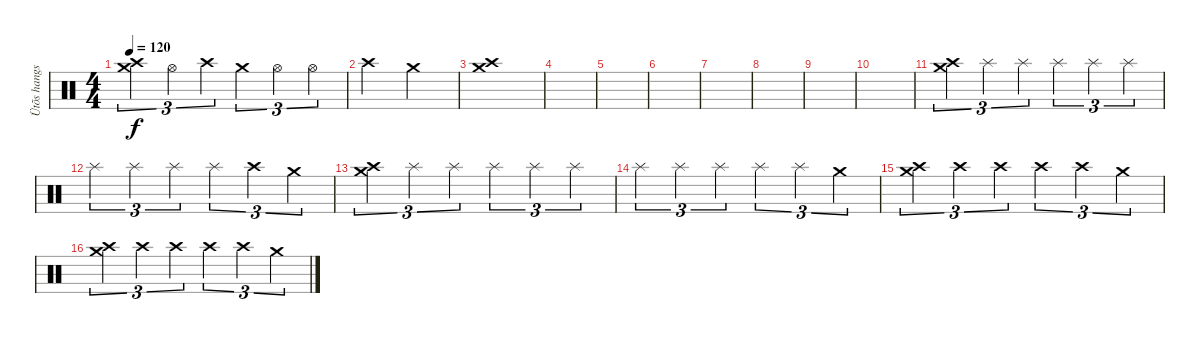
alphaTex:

\track ("Ütõs hangszer" "Ütõs hangs") {instrument percussion}
\staff {score}
\articulation defaults
\ts (4 4)
\tempo 120
\clef neutral
\ks c
("Crash medium (hit)" "Crash high (hit)").4{tu (3 2) dy f} "Hi-Hat (open)".4{tu (3 2)} "Crash high (hit)".4{tu (3 2)} "Crash medium (hit)".4{tu (3 2)} "Hi-Hat (open)".4{tu (3 2)} "Hi-Hat (open)".4{tu (3 2)} |
"Crash high (hit)".2 "Crash medium (hit)".2 |
("Crash medium (hit)" "Crash high (hit)").1 |
|
|
|
|
|
|
|
("Crash medium (hit)" "Crash high (hit)").4{tu (3 2)} "Splash (hit)".4{tu (3 2)} "Splash (hit)".4{tu (3 2)} "Splash (hit)".4{tu (3 2)} "Splash (hit)".4{tu (3 2)} "Splash (hit)".4{tu (3 2)} |
"Splash (hit)".4{tu (3 2)} "Splash (hit)".4{tu (3 2)} "Splash (hit)".4{tu (3 2)} "Splash (hit)".4{tu (3 2)} "Crash high (hit)".4{tu (3 2)} "Crash medium (hit)".4{tu (3 2)} |
("Crash medium (hit)" "Crash high (hit)").4{tu (3 2)} "Splash (hit)".4{tu (3 2)} "Splash (hit)".4{tu (3 2)} "Splash (hit)".4{tu (3 2)} "Splash (hit)".4{tu (3 2)} "Splash (hit)".4{tu (3 2)} |
"Splash (hit)".4{tu (3 2)} "Splash (hit)".4{tu (3 2)} "Splash (hit)".4{tu (3 2)} "Splash (hit)".4{tu (3 2)} "Splash (hit)".4{tu (3 2)} "Crash medium (hit)".4{tu (3 2)} |
("Crash medium (hit)" "Crash high (hit)").4{tu (3 2)} "Crash high (hit)".4{tu (3 2)} "Crash high (hit)".4{tu (3 2)} "Crash high (hit)".4{tu (3 2)} "Crash high (hit)".4{tu (3 2)} "Crash medium (hit)".4{tu (3 2)} |
("Crash medium (hit)" "Crash high (hit)").4{tu (3 2)} "Crash high (hit)".4{tu (3 2)} "Crash high (hit)".4{tu (3 2)} "Crash high (hit)".4{tu (3 2)} "Crash high (hit)".4{tu (3 2)} "Crash medium (hit)".4{tu (3 2)}
